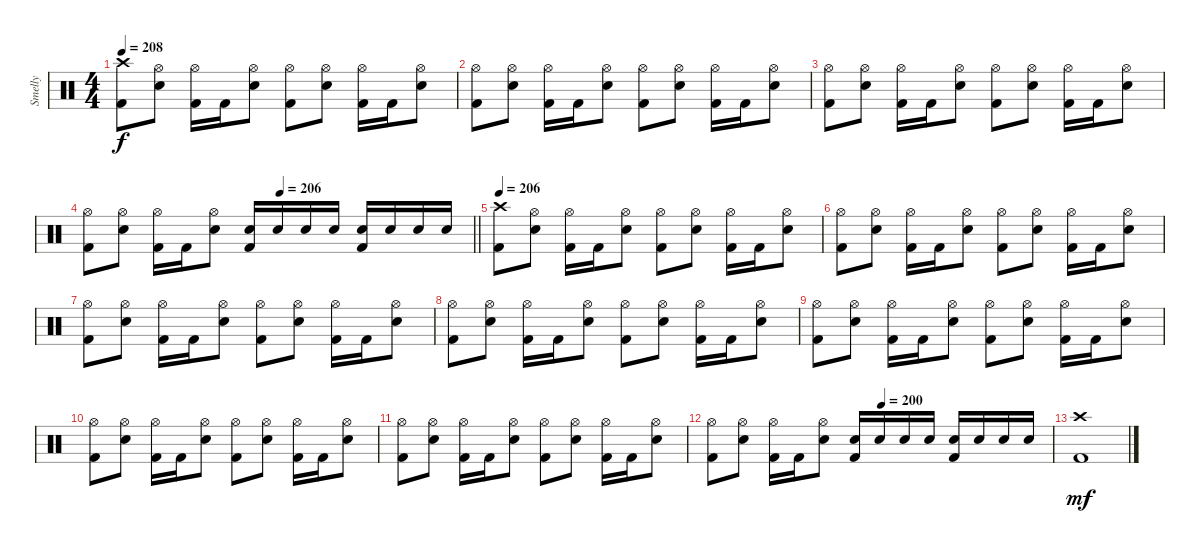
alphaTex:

\track ("Smelly" "Smelly") {instrument percussion}
\staff {score}
\articulation defaults
\ts (4 4)
\tempo 208
\clef neutral
\ks c
("Crash high (hit)" "Kick (hit) 2").8{dy f} ("Hi-Hat (open)" "Electric Snare (hit)").8 ("Hi-Hat (open)" "Kick (hit) 2").16 "Kick (hit) 2".16 ("Hi-Hat (open)" "Electric Snare (hit)").8 ("Hi-Hat (open)" "Kick (hit) 2").8 ("Hi-Hat (open)" "Electric Snare (hit)").8 ("Hi-Hat (open)" "Kick (hit) 2").16 "Kick (hit) 2".16 ("Hi-Hat (open)" "Electric Snare (hit)").8 |
("Hi-Hat (open)" "Kick (hit) 2").8 ("Hi-Hat (open)" "Electric Snare (hit)").8 ("Hi-Hat (open)" "Kick (hit) 2").16 "Kick (hit) 2".16 ("Hi-Hat (open)" "Electric Snare (hit)").8 ("Hi-Hat (open)" "Kick (hit) 2").8 ("Hi-Hat (open)" "Electric Snare (hit)").8 ("Hi-Hat (open)" "Kick (hit) 2").16 "Kick (hit) 2".16 ("Hi-Hat (open)" "Electric Snare (hit)").8 |
("Hi-Hat (open)" "Kick (hit) 2").8 ("Hi-Hat (open)" "Electric Snare (hit)").8 ("Hi-Hat (open)" "Kick (hit) 2").16 "Kick (hit) 2".16 ("Hi-Hat (open)" "Electric Snare (hit)").8 ("Hi-Hat (open)" "Kick (hit) 2").8 ("Hi-Hat (open)" "Electric Snare (hit)").8 ("Hi-Hat (open)" "Kick (hit) 2").16 "Kick (hit) 2".16 ("Hi-Hat (open)" "Electric Snare (hit)").8 |
\tempo (206 0.5)
\barLineRight lightlight
("Hi-Hat (open)" "Kick (hit) 2").8 ("Hi-Hat (open)" "Electric Snare (hit)").8 ("Hi-Hat (open)" "Kick (hit) 2").16 "Kick (hit) 2".16 ("Hi-Hat (open)" "Electric Snare (hit)").8 ("Electric Snare (hit)" "Kick (hit) 2").16 "Electric Snare (hit)".16 "Electric Snare (hit)".16 "Electric Snare (hit)".16 ("Electric Snare (hit)" "Kick (hit) 2").16 "Electric Snare (hit)".16 "Electric Snare (hit)".16 "Electric Snare (hit)".16 |
\section ("" "")
\tempo 206
("Crash high (hit)" "Kick (hit) 2").8 ("Hi-Hat (open)" "Electric Snare (hit)").8 ("Hi-Hat (open)" "Kick (hit) 2").16 "Kick (hit) 2".16 ("Hi-Hat (open)" "Electric Snare (hit)").8 ("Hi-Hat (open)" "Kick (hit) 2").8 ("Hi-Hat (open)" "Electric Snare (hit)").8 ("Hi-Hat (open)" "Kick (hit) 2").16 "Kick (hit) 2".16 ("Hi-Hat (open)" "Electric Snare (hit)").8 |
("Hi-Hat (open)" "Kick (hit) 2").8 ("Hi-Hat (open)" "Electric Snare (hit)").8 ("Hi-Hat (open)" "Kick (hit) 2").16 "Kick (hit) 2".16 ("Hi-Hat (open)" "Electric Snare (hit)").8 ("Hi-Hat (open)" "Kick (hit) 2").8 ("Hi-Hat (open)" "Electric Snare (hit)").8 ("Hi-Hat (open)" "Kick (hit) 2").16 "Kick (hit) 2".16 ("Hi-Hat (open)" "Electric Snare (hit)").8 |
("Hi-Hat (open)" "Kick (hit) 2").8 ("Hi-Hat (open)" "Electric Snare (hit)").8 ("Hi-Hat (open)" "Kick (hit) 2").16 "Kick (hit) 2".16 ("Hi-Hat (open)" "Electric Snare (hit)").8 ("Hi-Hat (open)" "Kick (hit) 2").8 ("Hi-Hat (open)" "Electric Snare (hit)").8 ("Hi-Hat (open)" "Kick (hit) 2").16 "Kick (hit) 2".16 ("Hi-Hat (open)" "Electric Snare (hit)").8 |
("Hi-Hat (open)" "Kick (hit) 2").8 ("Hi-Hat (open)" "Electric Snare (hit)").8 ("Hi-Hat (open)" "Kick (hit) 2").16 "Kick (hit) 2".16 ("Hi-Hat (open)" "Electric Snare (hit)").8 ("Hi-Hat (open)" "Kick (hit) 2").8 ("Hi-Hat (open)" "Electric Snare (hit)").8 ("Hi-Hat (open)" "Kick (hit) 2").16 "Kick (hit) 2".16 ("Hi-Hat (open)" "Electric Snare (hit)").8 |
("Hi-Hat (open)" "Kick (hit) 2").8 ("Hi-Hat (open)" "Electric Snare (hit)").8 ("Hi-Hat (open)" "Kick (hit) 2").16 "Kick (hit) 2".16 ("Hi-Hat (open)" "Electric Snare (hit)").8 ("Hi-Hat (open)" "Kick (hit) 2").8 ("Hi-Hat (open)" "Electric Snare (hit)").8 ("Hi-Hat (open)" "Kick (hit) 2").16 "Kick (hit) 2".16 ("Hi-Hat (open)" "Electric Snare (hit)").8 |
("Hi-Hat (open)" "Kick (hit) 2").8 ("Hi-Hat (open)" "Electric Snare (hit)").8 ("Hi-Hat (open)" "Kick (hit) 2").16 "Kick (hit) 2".16 ("Hi-Hat (open)" "Electric Snare (hit)").8 ("Hi-Hat (open)" "Kick (hit) 2").8 ("Hi-Hat (open)" "Electric Snare (hit)").8 ("Hi-Hat (open)" "Kick (hit) 2").16 "Kick (hit) 2".16 ("Hi-Hat (open)" "Electric Snare (hit)").8 |
("Hi-Hat (open)" "Kick (hit) 2").8 ("Hi-Hat (open)" "Electric Snare (hit)").8 ("Hi-Hat (open)" "Kick (hit) 2").16 "Kick (hit) 2".16 ("Hi-Hat (open)" "Electric Snare (hit)").8 ("Hi-Hat (open)" "Kick (hit) 2").8 ("Hi-Hat (open)" "Electric Snare (hit)").8 ("Hi-Hat (open)" "Kick (hit) 2").16 "Kick (hit) 2".16 ("Hi-Hat (open)" "Electric Snare (hit)").8 |
\tempo (200 0.5)
("Hi-Hat (open)" "Kick (hit) 2").8 ("Hi-Hat (open)" "Electric Snare (hit)").8 ("Hi-Hat (open)" "Kick (hit) 2").16 "Kick (hit) 2".16 ("Hi-Hat (open)" "Electric Snare (hit)").8 ("Electric Snare (hit)" "Kick (hit) 2").16 "Electric Snare (hit)".16 "Electric Snare (hit)".16 "Electric Snare (hit)".16 ("Electric Snare (hit)" "Kick (hit) 2").16 "Electric Snare (hit)".16 "Electric Snare (hit)".16 "Electric Snare (hit)".16 |
("Crash high (hit)" "Kick (hit) 2").1{dy mf}
